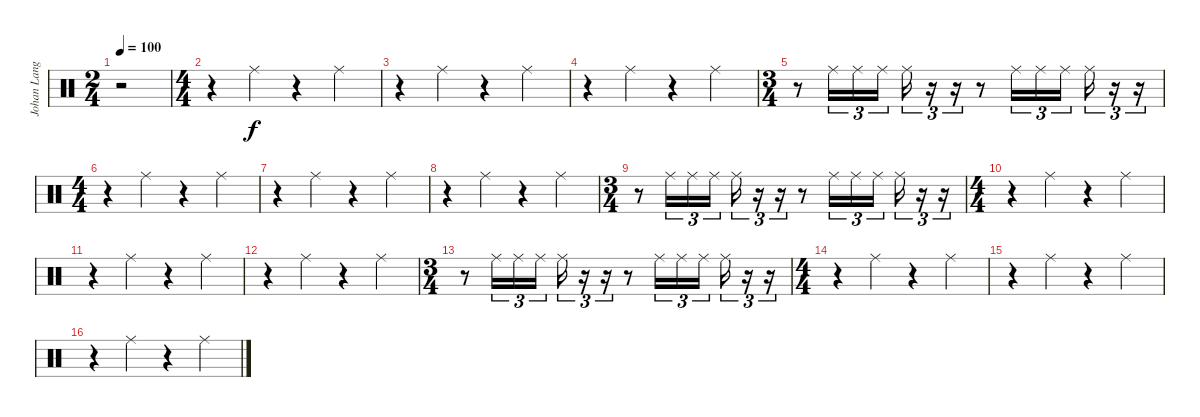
\track ("Johan Langell" "Johan Lang") {instrument percussion}
\staff {score}
\articulation defaults
\ts (2 4)
\tempo 100
\clef neutral
\ks c
r.2{dy f} |
\ts (4 4)
r.4 "Ride (middle)".4 r.4 "Ride (middle)".4 |
r.4 "Ride (middle)".4 r.4 "Ride (middle)".4 |
r.4 "Ride (middle)".4 r.4 "Ride (middle)".4 |
\ts (3 4)
r.8 "Ride (middle)".16{tu (3 2)} "Ride (middle)".16{tu (3 2)} "Ride (middle)".16{tu (3 2)} "Ride (middle)".16{tu (3 2)} r.16{tu (3 2)} r.16{tu (3 2)} r.8 "Ride (middle)".16{tu (3 2)} "Ride (middle)".16{tu (3 2)} "Ride (middle)".16{tu (3 2)} "Ride (middle)".16{tu (3 2)} r.16{tu (3 2)} r.16{tu (3 2)} |
\ts (4 4)
r.4 "Ride (middle)".4 r.4 "Ride (middle)".4 |
r.4 "Ride (middle)".4 r.4 "Ride (middle)".4 |
r.4 "Ride (middle)".4 r.4 "Ride (middle)".4 |
\ts (3 4)
r.8 "Ride (middle)".16{tu (3 2)} "Ride (middle)".16{tu (3 2)} "Ride (middle)".16{tu (3 2)} "Ride (middle)".16{tu (3 2)} r.16{tu (3 2)} r.16{tu (3 2)} r.8 "Ride (middle)".16{tu (3 2)} "Ride (middle)".16{tu (3 2)} "Ride (middle)".16{tu (3 2)} "Ride (middle)".16{tu (3 2)} r.16{tu (3 2)} r.16{tu (3 2)} |
\ts (4 4)
r.4 "Ride (middle)".4 r.4 "Ride (middle)".4 |
r.4 "Ride (middle)".4 r.4 "Ride (middle)".4 |
r.4 "Ride (middle)".4 r.4 "Ride (middle)".4 |
\ts (3 4)
r.8 "Ride (middle)".16{tu (3 2)} "Ride (middle)".16{tu (3 2)} "Ride (middle)".16{tu (3 2)} "Ride (middle)".16{tu (3 2)} r.16{tu (3 2)} r.16{tu (3 2)} r.8 "Ride (middle)".16{tu (3 2)} "Ride (middle)".16{tu (3 2)} "Ride (middle)".16{tu (3 2)} "Ride (middle)".16{tu (3 2)} r.16{tu (3 2)} r.16{tu (3 2)} |
\ts (4 4)
r.4 "Ride (middle)".4 r.4 "Ride (middle)".4 |
r.4 "Ride (middle)".4 r.4 "Ride (middle)".4 |
r.4 "Ride (middle)".4 r.4 "Ride (middle)".4
